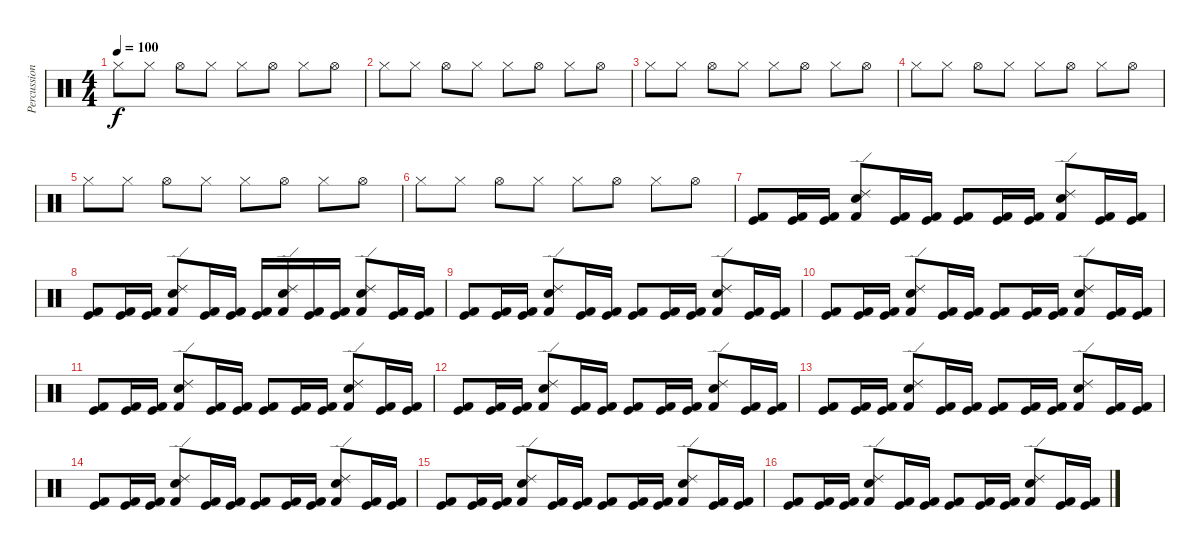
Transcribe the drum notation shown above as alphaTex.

\track ("Percussions" "Percussion") {instrument percussion}
\staff {score}
\articulation defaults
\ts (4 4)
\tempo 100
\clef neutral
\ks c "Hi-Hat (closed)".8{dy f} "Hi-Hat (closed)".8 "Hi-Hat (open)".8 "Hi-Hat (closed)".8 "Hi-Hat (closed)".8 "Hi-Hat (open)".8 "Hi-Hat (closed)".8 "Hi-Hat (open)".8
|
"Hi-Hat (closed)".8 "Hi-Hat (closed)".8 "Hi-Hat (open)".8 "Hi-Hat (closed)".8 "Hi-Hat (closed)".8 "Hi-Hat (open)".8 "Hi-Hat (closed)".8 "Hi-Hat (open)".8 |
"Hi-Hat (closed)".8 "Hi-Hat (closed)".8 "Hi-Hat (open)".8 "Hi-Hat (closed)".8 "Hi-Hat (closed)".8 "Hi-Hat (open)".8 "Hi-Hat (closed)".8 "Hi-Hat (open)".8 |
"Hi-Hat (closed)".8 "Hi-Hat (closed)".8 "Hi-Hat (open)".8 "Hi-Hat (closed)".8 "Hi-Hat (closed)".8 "Hi-Hat (open)".8 "Hi-Hat (closed)".8 "Hi-Hat (open)".8 |
"Hi-Hat (closed)".8 "Hi-Hat (closed)".8 "Hi-Hat (open)".8 "Hi-Hat (closed)".8 "Hi-Hat (closed)".8 "Hi-Hat (open)".8 "Hi-Hat (closed)".8 "Hi-Hat (open)".8 |
"Hi-Hat (closed)".8 "Hi-Hat (closed)".8 "Hi-Hat (open)".8 "Hi-Hat (closed)".8 "Hi-Hat (closed)".8 "Hi-Hat (open)".8 "Hi-Hat (closed)".8 "Hi-Hat (open)".8 |
("Kick (hit) 2" "Kick (hit)").8 ("Kick (hit) 2" "Kick (hit)").16 ("Kick (hit) 2" "Kick (hit)").16 ("Electric Snare (hit)" "Ride (edge) 2" "Kick (hit) 2").8 ("Kick (hit) 2" "Kick (hit)").16 ("Kick (hit) 2" "Kick (hit)").16 ("Kick (hit) 2" "Kick (hit)").8 ("Kick (hit) 2" "Kick (hit)").16 ("Kick (hit) 2" "Kick (hit)").16 ("Electric Snare (hit)" "Ride (edge) 2" "Kick (hit) 2").8 ("Kick (hit) 2" "Kick (hit)").16 ("Kick (hit) 2" "Kick (hit)").16 |
("Kick (hit) 2" "Kick (hit)").8 ("Kick (hit) 2" "Kick (hit)").16 ("Kick (hit) 2" "Kick (hit)").16 ("Electric Snare (hit)" "Ride (edge) 2" "Kick (hit) 2").8 ("Kick (hit) 2" "Kick (hit)").16 ("Kick (hit) 2" "Kick (hit)").16 ("Kick (hit) 2" "Kick (hit)").16 ("Electric Snare (hit)" "Ride (edge) 2" "Kick (hit) 2").16 ("Kick (hit) 2" "Kick (hit)").16 ("Kick (hit) 2" "Kick (hit)").16 ("Electric Snare (hit)" "Ride (edge) 2" "Kick (hit) 2").8 ("Kick (hit) 2" "Kick (hit)").16 ("Kick (hit) 2" "Kick (hit)").16 |
("Kick (hit) 2" "Kick (hit)").8 ("Kick (hit) 2" "Kick (hit)").16 ("Kick (hit) 2" "Kick (hit)").16 ("Electric Snare (hit)" "Ride (edge) 2" "Kick (hit) 2").8 ("Kick (hit) 2" "Kick (hit)").16 ("Kick (hit) 2" "Kick (hit)").16 ("Kick (hit) 2" "Kick (hit)").8 ("Kick (hit) 2" "Kick (hit)").16 ("Kick (hit) 2" "Kick (hit)").16 ("Electric Snare (hit)" "Ride (edge) 2" "Kick (hit) 2").8 ("Kick (hit) 2" "Kick (hit)").16 ("Kick (hit) 2" "Kick (hit)").16 |
("Kick (hit) 2" "Kick (hit)").8 ("Kick (hit) 2" "Kick (hit)").16 ("Kick (hit) 2" "Kick (hit)").16 ("Electric Snare (hit)" "Ride (edge) 2" "Kick (hit) 2").8 ("Kick (hit) 2" "Kick (hit)").16 ("Kick (hit) 2" "Kick (hit)").16 ("Kick (hit) 2" "Kick (hit)").8 ("Kick (hit) 2" "Kick (hit)").16 ("Kick (hit) 2" "Kick (hit)").16 ("Electric Snare (hit)" "Ride (edge) 2" "Kick (hit) 2").8 ("Kick (hit) 2" "Kick (hit)").16 ("Kick (hit) 2" "Kick (hit)").16 |
("Kick (hit) 2" "Kick (hit)").8 ("Kick (hit) 2" "Kick (hit)").16 ("Kick (hit) 2" "Kick (hit)").16 ("Electric Snare (hit)" "Ride (edge) 2" "Kick (hit) 2").8 ("Kick (hit) 2" "Kick (hit)").16 ("Kick (hit) 2" "Kick (hit)").16 ("Kick (hit) 2" "Kick (hit)").8 ("Kick (hit) 2" "Kick (hit)").16 ("Kick (hit) 2" "Kick (hit)").16 ("Electric Snare (hit)" "Ride (edge) 2" "Kick (hit) 2").8 ("Kick (hit) 2" "Kick (hit)").16 ("Kick (hit) 2" "Kick (hit)").16 |
("Kick (hit) 2" "Kick (hit)").8 ("Kick (hit) 2" "Kick (hit)").16 ("Kick (hit) 2" "Kick (hit)").16 ("Electric Snare (hit)" "Ride (edge) 2" "Kick (hit) 2").8 ("Kick (hit) 2" "Kick (hit)").16 ("Kick (hit) 2" "Kick (hit)").16 ("Kick (hit) 2" "Kick (hit)").8 ("Kick (hit) 2" "Kick (hit)").16 ("Kick (hit) 2" "Kick (hit)").16 ("Electric Snare (hit)" "Ride (edge) 2" "Kick (hit) 2").8 ("Kick (hit) 2" "Kick (hit)").16 ("Kick (hit) 2" "Kick (hit)").16 |
("Kick (hit) 2" "Kick (hit)").8 ("Kick (hit) 2" "Kick (hit)").16 ("Kick (hit) 2" "Kick (hit)").16 ("Electric Snare (hit)" "Ride (edge) 2" "Kick (hit) 2").8 ("Kick (hit) 2" "Kick (hit)").16 ("Kick (hit) 2" "Kick (hit)").16 ("Kick (hit) 2" "Kick (hit)").8 ("Kick (hit) 2" "Kick (hit)").16 ("Kick (hit) 2" "Kick (hit)").16 ("Electric Snare (hit)" "Ride (edge) 2" "Kick (hit) 2").8 ("Kick (hit) 2" "Kick (hit)").16 ("Kick (hit) 2" "Kick (hit)").16 |
("Kick (hit) 2" "Kick (hit)").8 ("Kick (hit) 2" "Kick (hit)").16 ("Kick (hit) 2" "Kick (hit)").16 ("Electric Snare (hit)" "Ride (edge) 2" "Kick (hit) 2").8 ("Kick (hit) 2" "Kick (hit)").16 ("Kick (hit) 2" "Kick (hit)").16 ("Kick (hit) 2" "Kick (hit)").8 ("Kick (hit) 2" "Kick (hit)").16 ("Kick (hit) 2" "Kick (hit)").16 ("Electric Snare (hit)" "Ride (edge) 2" "Kick (hit) 2").8 ("Kick (hit) 2" "Kick (hit)").16 ("Kick (hit) 2" "Kick (hit)").16 |
("Kick (hit) 2" "Kick (hit)").8 ("Kick (hit) 2" "Kick (hit)").16 ("Kick (hit) 2" "Kick (hit)").16 ("Electric Snare (hit)" "Ride (edge) 2" "Kick (hit) 2").8 ("Kick (hit) 2" "Kick (hit)").16 ("Kick (hit) 2" "Kick (hit)").16 ("Kick (hit) 2" "Kick (hit)").8 ("Kick (hit) 2" "Kick (hit)").16 ("Kick (hit) 2" "Kick (hit)").16 ("Electric Snare (hit)" "Ride (edge) 2" "Kick (hit) 2").8 ("Kick (hit) 2" "Kick (hit)").16 ("Kick (hit) 2" "Kick (hit)").16 |
("Kick (hit) 2" "Kick (hit)").8 ("Kick (hit) 2" "Kick (hit)").16 ("Kick (hit) 2" "Kick (hit)").16 ("Electric Snare (hit)" "Ride (edge) 2" "Kick (hit) 2").8 ("Kick (hit) 2" "Kick (hit)").16 ("Kick (hit) 2" "Kick (hit)").16 ("Kick (hit) 2" "Kick (hit)").8 ("Kick (hit) 2" "Kick (hit)").16 ("Kick (hit) 2" "Kick (hit)").16 ("Electric Snare (hit)" "Ride (edge) 2" "Kick (hit) 2").8 ("Kick (hit) 2" "Kick (hit)").16 ("Kick (hit) 2" "Kick (hit)").16
